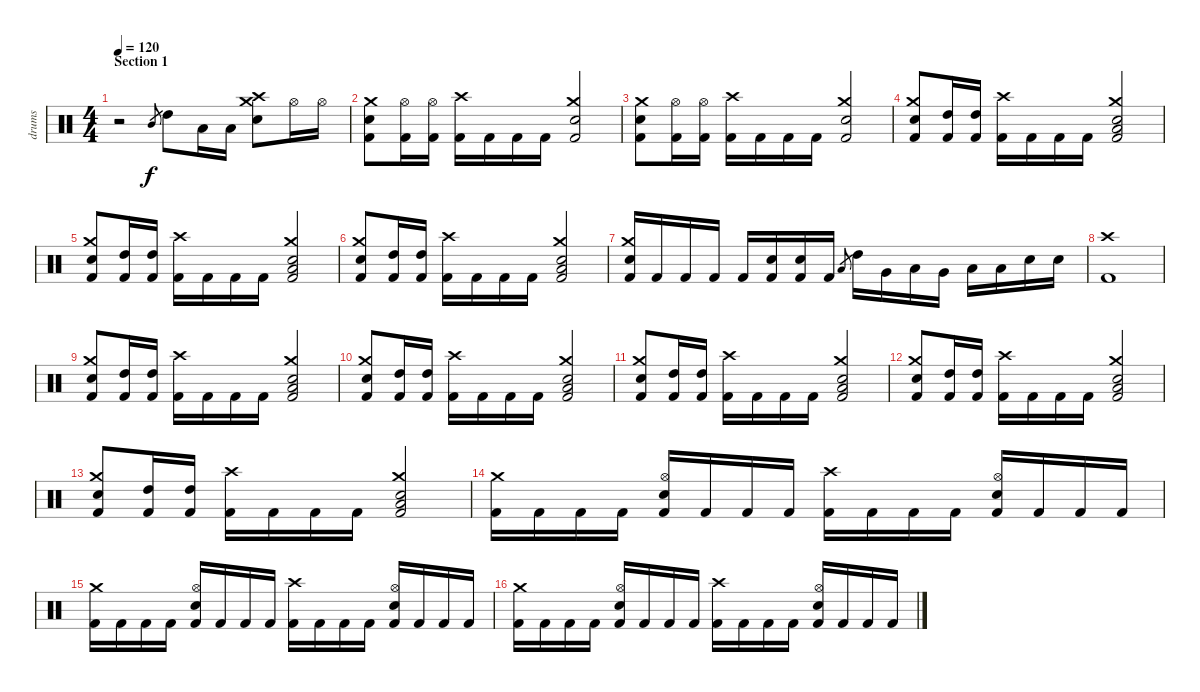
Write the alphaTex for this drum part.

\track ("drums" "drums") {instrument percussion}
\staff {score}
\articulation defaults
\ts (4 4)
\section ("" "Section 1")
\tempo 120
\clef neutral
\ks c
r.2{dy f} "Mid Tom (hit)".8{gr} "High Tom (hit)".8 "Low Tom (hit)".16 "Low Tom (hit)".16 ("Electric Snare (hit)" "Crash medium (hit)" "Crash high (hit)").8 "Hi-Hat (open)".16 "Hi-Hat (open)".16 |
("Electric Snare (hit)" "Crash medium (hit)" "Kick (hit) 2").8 ("Hi-Hat (open)" "Kick (hit) 2").16 ("Hi-Hat (open)" "Kick (hit) 2").16 ("Crash high (hit)" "Kick (hit) 2").16 "Kick (hit) 2".16 "Kick (hit) 2".16 "Kick (hit) 2".16 ("Electric Snare (hit)" "Crash medium (hit)" "Kick (hit) 2").2 |
("Electric Snare (hit)" "Crash medium (hit)" "Kick (hit) 2").8 ("Hi-Hat (open)" "Kick (hit) 2").16 ("Hi-Hat (open)" "Kick (hit) 2").16 ("Crash high (hit)" "Kick (hit) 2").16 "Kick (hit) 2".16 "Kick (hit) 2".16 "Kick (hit) 2".16 ("Electric Snare (hit)" "Crash medium (hit)" "Kick (hit) 2").2 |
("Electric Snare (hit)" "Crash medium (hit)" "Kick (hit) 2").8 ("High Tom (hit)" "Kick (hit) 2").16 ("High Tom (hit)" "Kick (hit) 2").16 ("Crash high (hit)" "Kick (hit) 2").16 "Kick (hit) 2".16 "Kick (hit) 2".16 "Kick (hit) 2".16 ("Low Tom (hit)" "Electric Snare (hit)" "Crash medium (hit)" "Kick (hit) 2").2 |
("Electric Snare (hit)" "Crash medium (hit)" "Kick (hit) 2").8 ("High Tom (hit)" "Kick (hit) 2").16 ("High Tom (hit)" "Kick (hit) 2").16 ("Crash high (hit)" "Kick (hit) 2").16 "Kick (hit) 2".16 "Kick (hit) 2".16 "Kick (hit) 2".16 ("Low Tom (hit)" "Electric Snare (hit)" "Crash medium (hit)" "Kick (hit) 2").2 |
("Electric Snare (hit)" "Crash medium (hit)" "Kick (hit) 2").8 ("High Tom (hit)" "Kick (hit) 2").16 ("High Tom (hit)" "Kick (hit) 2").16 ("Crash high (hit)" "Kick (hit) 2").16 "Kick (hit) 2".16 "Kick (hit) 2".16 "Kick (hit) 2".16 ("Low Tom (hit)" "Electric Snare (hit)" "Crash medium (hit)" "Kick (hit) 2").2 |
("Electric Snare (hit)" "Crash medium (hit)" "Kick (hit) 2").16 "Kick (hit) 2".16 "Kick (hit) 2".16 "Kick (hit) 2".16 "Kick (hit) 2".16 ("Electric Snare (hit)" "Kick (hit) 2").16 ("Electric Snare (hit)" "Kick (hit) 2").16 "Kick (hit) 2".16 "Low Tom (hit)".8{gr} "High Tom (hit)".16 "Very Low Tom (hit)".16 "Low Floor Tom (hit)".16 "Very Low Tom (hit)".16 "Low Floor Tom (hit)".16 "Low Floor Tom (hit)".16 "Electric Snare (hit)".16 "Electric Snare (hit)".16 |
("Crash high (hit)" "Kick (hit) 2").1 |
("Electric Snare (hit)" "Crash medium (hit)" "Kick (hit) 2").8 ("High Tom (hit)" "Kick (hit) 2").16 ("High Tom (hit)" "Kick (hit) 2").16 ("Crash high (hit)" "Kick (hit) 2").16 "Kick (hit) 2".16 "Kick (hit) 2".16 "Kick (hit) 2".16 ("Low Tom (hit)" "Electric Snare (hit)" "Crash medium (hit)" "Kick (hit) 2").2 |
("Electric Snare (hit)" "Crash medium (hit)" "Kick (hit) 2").8 ("High Tom (hit)" "Kick (hit) 2").16 ("High Tom (hit)" "Kick (hit) 2").16 ("Crash high (hit)" "Kick (hit) 2").16 "Kick (hit) 2".16 "Kick (hit) 2".16 "Kick (hit) 2".16 ("Low Tom (hit)" "Electric Snare (hit)" "Crash medium (hit)" "Kick (hit) 2").2 |
("Electric Snare (hit)" "Crash medium (hit)" "Kick (hit) 2").8 ("High Tom (hit)" "Kick (hit) 2").16 ("High Tom (hit)" "Kick (hit) 2").16 ("Crash high (hit)" "Kick (hit) 2").16 "Kick (hit) 2".16 "Kick (hit) 2".16 "Kick (hit) 2".16 ("Low Tom (hit)" "Electric Snare (hit)" "Crash medium (hit)" "Kick (hit) 2").2 |
("Electric Snare (hit)" "Crash medium (hit)" "Kick (hit) 2").8 ("High Tom (hit)" "Kick (hit) 2").16 ("High Tom (hit)" "Kick (hit) 2").16 ("Crash high (hit)" "Kick (hit) 2").16 "Kick (hit) 2".16 "Kick (hit) 2".16 "Kick (hit) 2".16 ("Low Tom (hit)" "Electric Snare (hit)" "Crash medium (hit)" "Kick (hit) 2").2 |
("Electric Snare (hit)" "Crash medium (hit)" "Kick (hit) 2").8 ("High Tom (hit)" "Kick (hit) 2").16 ("High Tom (hit)" "Kick (hit) 2").16 ("Crash high (hit)" "Kick (hit) 2").16 "Kick (hit) 2".16 "Kick (hit) 2".16 "Kick (hit) 2".16 ("Low Tom (hit)" "Electric Snare (hit)" "Crash medium (hit)" "Kick (hit) 2").2 |
("Kick (hit) 2" "Crash medium (hit)").16 "Kick (hit) 2".16 "Kick (hit) 2".16 "Kick (hit) 2".16 ("Kick (hit) 2" "Hi-Hat (open)" "Electric Snare (hit)").16 "Kick (hit) 2".16 "Kick (hit) 2".16 "Kick (hit) 2".16 ("Kick (hit) 2" "Crash high (hit)").16 "Kick (hit) 2".16 "Kick (hit) 2".16 "Kick (hit) 2".16 ("Kick (hit) 2" "Hi-Hat (open)" "Electric Snare (hit)").16 "Kick (hit) 2".16 "Kick (hit) 2".16 "Kick (hit) 2".16 |
("Kick (hit) 2" "Crash medium (hit)").16 "Kick (hit) 2".16 "Kick (hit) 2".16 "Kick (hit) 2".16 ("Kick (hit) 2" "Hi-Hat (open)" "Electric Snare (hit)").16 "Kick (hit) 2".16 "Kick (hit) 2".16 "Kick (hit) 2".16 ("Kick (hit) 2" "Crash high (hit)").16 "Kick (hit) 2".16 "Kick (hit) 2".16 "Kick (hit) 2".16 ("Kick (hit) 2" "Hi-Hat (open)" "Electric Snare (hit)").16 "Kick (hit) 2".16 "Kick (hit) 2".16 "Kick (hit) 2".16 |
("Kick (hit) 2" "Crash medium (hit)").16 "Kick (hit) 2".16 "Kick (hit) 2".16 "Kick (hit) 2".16 ("Kick (hit) 2" "Hi-Hat (open)" "Electric Snare (hit)").16 "Kick (hit) 2".16 "Kick (hit) 2".16 "Kick (hit) 2".16 ("Kick (hit) 2" "Crash high (hit)").16 "Kick (hit) 2".16 "Kick (hit) 2".16 "Kick (hit) 2".16 ("Kick (hit) 2" "Hi-Hat (open)" "Electric Snare (hit)").16 "Kick (hit) 2".16 "Kick (hit) 2".16 "Kick (hit) 2".16
